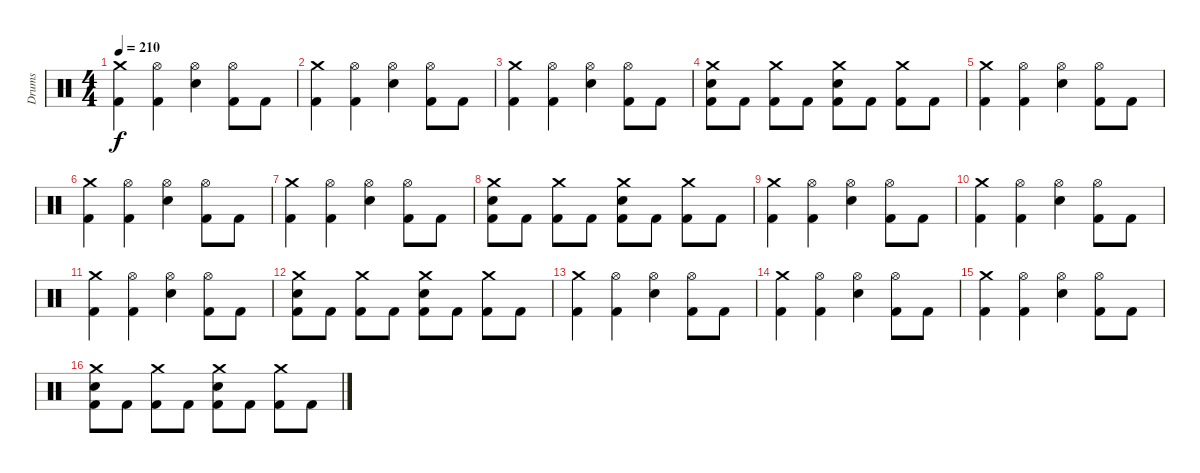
\track ("Drums" "Drums") {instrument percussion}
\staff {score}
\articulation defaults
\ts (4 4)
\tempo 210
\clef neutral
\ks c
("Crash medium (hit)" "Kick (hit) 2").4{dy f} ("Hi-Hat (open)" "Kick (hit) 2").4 ("Hi-Hat (open)" "Snare (hit) 2").4 ("Hi-Hat (open)" "Kick (hit) 2").8 "Kick (hit) 2".8 |
("Crash medium (hit)" "Kick (hit) 2").4 ("Hi-Hat (open)" "Kick (hit) 2").4 ("Hi-Hat (open)" "Snare (hit) 2").4 ("Hi-Hat (open)" "Kick (hit) 2").8 "Kick (hit) 2".8 |
("Crash medium (hit)" "Kick (hit) 2").4 ("Hi-Hat (open)" "Kick (hit) 2").4 ("Hi-Hat (open)" "Snare (hit) 2").4 ("Hi-Hat (open)" "Kick (hit) 2").8 "Kick (hit) 2".8 |
("Crash medium (hit)" "Snare (hit) 2" "Kick (hit) 2").8 "Kick (hit) 2".8 ("Crash medium (hit)" "Kick (hit) 2").8 "Kick (hit) 2".8 ("Crash medium (hit)" "Snare (hit) 2" "Kick (hit) 2").8 "Kick (hit) 2".8 ("Crash medium (hit)" "Kick (hit) 2").8 "Kick (hit) 2".8 |
("Crash medium (hit)" "Kick (hit) 2").4 ("Hi-Hat (open)" "Kick (hit) 2").4 ("Hi-Hat (open)" "Snare (hit) 2").4 ("Hi-Hat (open)" "Kick (hit) 2").8 "Kick (hit) 2".8 |
("Crash medium (hit)" "Kick (hit) 2").4 ("Hi-Hat (open)" "Kick (hit) 2").4 ("Hi-Hat (open)" "Snare (hit) 2").4 ("Hi-Hat (open)" "Kick (hit) 2").8 "Kick (hit) 2".8 |
("Crash medium (hit)" "Kick (hit) 2").4 ("Hi-Hat (open)" "Kick (hit) 2").4 ("Hi-Hat (open)" "Snare (hit) 2").4 ("Hi-Hat (open)" "Kick (hit) 2").8 "Kick (hit) 2".8 |
("Crash medium (hit)" "Snare (hit) 2" "Kick (hit) 2").8 "Kick (hit) 2".8 ("Crash medium (hit)" "Kick (hit) 2").8 "Kick (hit) 2".8 ("Crash medium (hit)" "Snare (hit) 2" "Kick (hit) 2").8 "Kick (hit) 2".8 ("Crash medium (hit)" "Kick (hit) 2").8 "Kick (hit) 2".8 |
("Crash medium (hit)" "Kick (hit) 2").4 ("Hi-Hat (open)" "Kick (hit) 2").4 ("Hi-Hat (open)" "Snare (hit) 2").4 ("Hi-Hat (open)" "Kick (hit) 2").8 "Kick (hit) 2".8 |
("Crash medium (hit)" "Kick (hit) 2").4 ("Hi-Hat (open)" "Kick (hit) 2").4 ("Hi-Hat (open)" "Snare (hit) 2").4 ("Hi-Hat (open)" "Kick (hit) 2").8 "Kick (hit) 2".8 |
("Crash medium (hit)" "Kick (hit) 2").4 ("Hi-Hat (open)" "Kick (hit) 2").4 ("Hi-Hat (open)" "Snare (hit) 2").4 ("Hi-Hat (open)" "Kick (hit) 2").8 "Kick (hit) 2".8 |
("Crash medium (hit)" "Snare (hit) 2" "Kick (hit) 2").8 "Kick (hit) 2".8 ("Crash medium (hit)" "Kick (hit) 2").8 "Kick (hit) 2".8 ("Crash medium (hit)" "Snare (hit) 2" "Kick (hit) 2").8 "Kick (hit) 2".8 ("Crash medium (hit)" "Kick (hit) 2").8 "Kick (hit) 2".8 |
("Crash medium (hit)" "Kick (hit) 2").4 ("Hi-Hat (open)" "Kick (hit) 2").4 ("Hi-Hat (open)" "Snare (hit) 2").4 ("Hi-Hat (open)" "Kick (hit) 2").8 "Kick (hit) 2".8 |
("Crash medium (hit)" "Kick (hit) 2").4 ("Hi-Hat (open)" "Kick (hit) 2").4 ("Hi-Hat (open)" "Snare (hit) 2").4 ("Hi-Hat (open)" "Kick (hit) 2").8 "Kick (hit) 2".8 |
("Crash medium (hit)" "Kick (hit) 2").4 ("Hi-Hat (open)" "Kick (hit) 2").4 ("Hi-Hat (open)" "Snare (hit) 2").4 ("Hi-Hat (open)" "Kick (hit) 2").8 "Kick (hit) 2".8 |
("Crash medium (hit)" "Snare (hit) 2" "Kick (hit) 2").8 "Kick (hit) 2".8 ("Crash medium (hit)" "Kick (hit) 2").8 "Kick (hit) 2".8 ("Crash medium (hit)" "Snare (hit) 2" "Kick (hit) 2").8 "Kick (hit) 2".8 ("Crash medium (hit)" "Kick (hit) 2").8 "Kick (hit) 2".8
